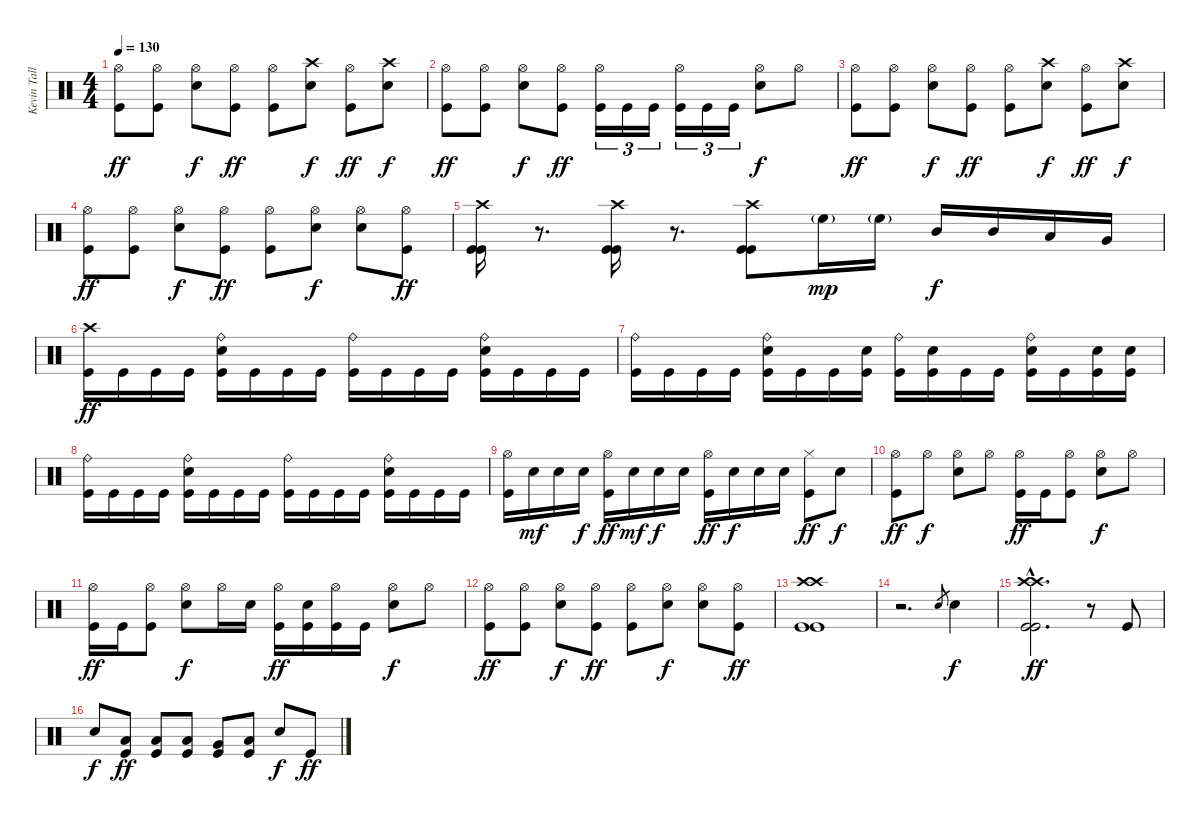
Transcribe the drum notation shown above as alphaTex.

\track ("Kevin Talley" "Kevin Tall") {instrument percussion}
\staff {score}
\articulation defaults
\ts (4 4)
\tempo 130
\clef neutral
\ks c
("Hi-Hat (open)" "Kick (hit)").8{dy ff} ("Hi-Hat (open)" "Kick (hit)").8 ("Hi-Hat (open)" "Electric Snare (hit)").8{dy f} ("Hi-Hat (open)" "Kick (hit)").8{dy ff} ("Hi-Hat (open)" "Kick (hit)").8 ("Crash high (hit)" "Electric Snare (hit)").8{dy f} ("Hi-Hat (open)" "Kick (hit)").8{dy ff} ("Crash high (hit)" "Electric Snare (hit)").8{dy f} |
("Hi-Hat (open)" "Kick (hit)").8{dy ff} ("Hi-Hat (open)" "Kick (hit)").8 ("Hi-Hat (open)" "Electric Snare (hit)").8{dy f} ("Hi-Hat (open)" "Kick (hit)").8{dy ff} ("Hi-Hat (open)" "Kick (hit)").16{tu (3 2)} "Kick (hit)".16{tu (3 2)} "Kick (hit)".16{tu (3 2)} ("Hi-Hat (open)" "Kick (hit)").16{tu (3 2)} "Kick (hit)".16{tu (3 2)} "Kick (hit)".16{tu (3 2)} ("Hi-Hat (open)" "Electric Snare (hit)").8{dy f} "Hi-Hat (open)".8 |
("Hi-Hat (open)" "Kick (hit)").8{dy ff} ("Hi-Hat (open)" "Kick (hit)").8 ("Hi-Hat (open)" "Electric Snare (hit)").8{dy f} ("Hi-Hat (open)" "Kick (hit)").8{dy ff} ("Hi-Hat (open)" "Kick (hit)").8 ("Crash high (hit)" "Electric Snare (hit)").8{dy f} ("Hi-Hat (open)" "Kick (hit)").8{dy ff} ("Crash high (hit)" "Electric Snare (hit)").8{dy f} |
("Hi-Hat (open)" "Kick (hit)").8{dy ff} ("Hi-Hat (open)" "Kick (hit)").8 ("Hi-Hat (open)" "Electric Snare (hit)").8{dy f} ("Hi-Hat (open)" "Kick (hit)").8{dy ff} ("Hi-Hat (open)" "Kick (hit)").8 ("Hi-Hat (open)" "Electric Snare (hit)").8{dy f} ("Hi-Hat (open)" "Electric Snare (hit)").8 ("Hi-Hat (open)" "Kick (hit)").8{dy ff} |
("Crash high (hit)" "Kick (hit)" "Kick (hit)").16 r.8{d volume 0} ("Crash high (hit)" "Kick (hit)" "Kick (hit)").16{volume 16} r.8{d volume 0} ("Crash high (hit)" "Kick (hit)" "Kick (hit)").8{volume 16} "High Floor Tom (hit)"{g}.16{dy mp} "High Floor Tom (hit)"{g}.16 "Mid Tom (hit)".16{dy f} "Mid Tom (hit)".16 "Low Tom (hit)".16 "Very Low Tom (hit)".16 |
("Crash high (hit)" "Kick (hit)").16{dy ff} "Kick (hit)".16 "Kick (hit)".16 "Kick (hit)".16 ("Ride (bell)" "Electric Snare (hit)" "Kick (hit)").16 "Kick (hit)".16 "Kick (hit)".16 "Kick (hit)".16 ("Ride (bell)" "Kick (hit)").16 "Kick (hit)".16 "Kick (hit)".16 "Kick (hit)".16 ("Ride (bell)" "Electric Snare (hit)" "Kick (hit)").16 "Kick (hit)".16 "Kick (hit)".16 "Kick (hit)".16 |
("Ride (bell)" "Kick (hit)").16 "Kick (hit)".16 "Kick (hit)".16 "Kick (hit)".16 ("Ride (bell)" "Electric Snare (hit)" "Kick (hit)").16 "Kick (hit)".16 "Kick (hit)".16 ("Electric Snare (hit)" "Kick (hit)").16 ("Ride (bell)" "Kick (hit)").16 ("Electric Snare (hit)" "Kick (hit)").16 "Kick (hit)".16 "Kick (hit)".16 ("Ride (bell)" "Electric Snare (hit)" "Kick (hit)").16 "Kick (hit)".16 ("Electric Snare (hit)" "Kick (hit)").16 ("Electric Snare (hit)" "Kick (hit)").16 |
("Ride (bell)" "Kick (hit)").16 "Kick (hit)".16 "Kick (hit)".16 "Kick (hit)".16 ("Ride (bell)" "Electric Snare (hit)" "Kick (hit)").16 "Kick (hit)".16 "Kick (hit)".16 "Kick (hit)".16 ("Ride (bell)" "Kick (hit)").16 "Kick (hit)".16 "Kick (hit)".16 "Kick (hit)".16 ("Ride (bell)" "Electric Snare (hit)" "Kick (hit)").16 "Kick (hit)".16 "Kick (hit)".16 "Kick (hit)".16 |
("Hi-Hat (open)" "Kick (hit)").16 "Electric Snare (hit)".16{dy mf} "Electric Snare (hit)".16 "Electric Snare (hit)".16{dy f} ("Hi-Hat (open)" "Kick (hit)").16{dy ff} "Electric Snare (hit)".16{dy mf} "Electric Snare (hit)".16{dy f} "Electric Snare (hit)".16 ("Hi-Hat (open)" "Kick (hit)").16{dy ff} "Electric Snare (hit)".16{dy f} "Electric Snare (hit)".16 "Electric Snare (hit)".16 ("Hi-Hat (closed)" "Kick (hit)").8{dy ff} "Electric Snare (hit)".8{dy f} |
("Hi-Hat (open)" "Kick (hit)").8{dy ff} "Hi-Hat (open)".8{dy f} ("Hi-Hat (open)" "Electric Snare (hit)").8 "Hi-Hat (open)".8 ("Hi-Hat (open)" "Kick (hit)").16{dy ff} "Kick (hit)".16 ("Hi-Hat (open)" "Kick (hit)").8 ("Hi-Hat (open)" "Electric Snare (hit)").8{dy f} "Hi-Hat (open)".8 |
("Hi-Hat (open)" "Kick (hit)").16{dy ff} "Kick (hit)".16 ("Hi-Hat (open)" "Kick (hit)").8 ("Hi-Hat (open)" "Electric Snare (hit)").8{dy f} "Hi-Hat (open)".16 "Electric Snare (hit)".16 ("Hi-Hat (open)" "Kick (hit)").16{dy ff} ("Electric Snare (hit)" "Kick (hit)").16 ("Hi-Hat (open)" "Kick (hit)").16 "Kick (hit)".16 ("Hi-Hat (open)" "Electric Snare (hit)").8{dy f} "Hi-Hat (open)".8 |
("Hi-Hat (open)" "Kick (hit)").8{dy ff} ("Hi-Hat (open)" "Kick (hit)").8 ("Hi-Hat (open)" "Electric Snare (hit)").8{dy f} ("Hi-Hat (open)" "Kick (hit)").8{dy ff} ("Hi-Hat (open)" "Kick (hit)").8 ("Hi-Hat (open)" "Electric Snare (hit)").8{dy f} ("Hi-Hat (open)" "Electric Snare (hit)").8 ("Hi-Hat (open)" "Kick (hit)").8{dy ff} |
("Crash high (hit)" "Crash high (hit)" "Kick (hit)" "Kick (hit)").1 |
r.2{d} "Electric Snare (hit)".8{gr} "Electric Snare (hit)".4{dy f} |
("Crash high (hit)"{hac} "Crash high (hit)"{hac} "Kick (hit)"{hac} "Kick (hit)"{hac}).2{d dy ff} r.8 "Kick (hit)".8 |
"Electric Snare (hit)".8{dy f} ("Low Tom (hit)" "Kick (hit)").8{dy ff} ("Low Floor Tom (hit)" "Kick (hit)").8 ("Low Tom (hit)" "Kick (hit)").8 ("Very Low Tom (hit)" "Kick (hit)").8 ("Low Floor Tom (hit)" "Kick (hit)").8 "Electric Snare (hit)".8{dy f} "Kick (hit)".8{dy ff}
